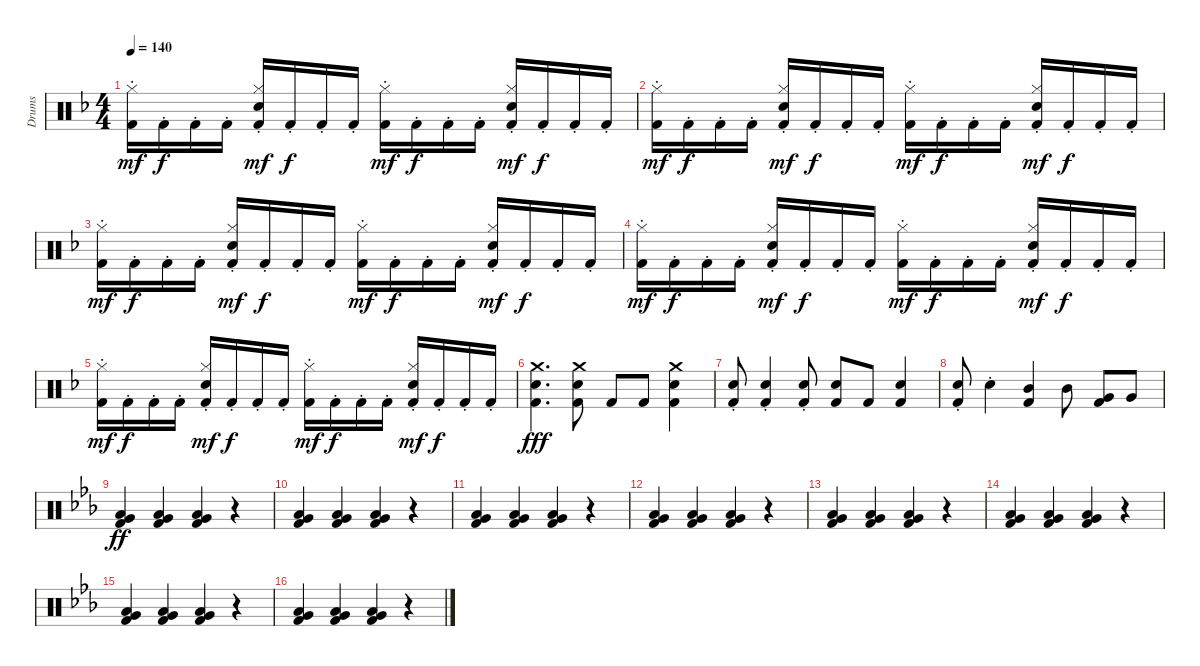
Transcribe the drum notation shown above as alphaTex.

\track ("Drums" "Drums") {instrument percussion}
\staff {score}
\articulation defaults
\ts (4 4)
\tempo 140
\clef neutral
\ks dminor
("Kick (hit) 2"{st} "Hi-Hat (closed)").16{dy mf} "Kick (hit) 2"{st}.16{dy f} "Kick (hit) 2"{st}.16 "Kick (hit) 2"{st}.16 ("Kick (hit) 2"{st} "Hi-Hat (closed)" "Electric Snare (hit)").16{dy mf} "Kick (hit) 2"{st}.16{dy f} "Kick (hit) 2"{st}.16 "Kick (hit) 2"{st}.16 ("Kick (hit) 2"{st} "Hi-Hat (closed)").16{dy mf} "Kick (hit) 2"{st}.16{dy f} "Kick (hit) 2"{st}.16 "Kick (hit) 2"{st}.16 ("Kick (hit) 2"{st} "Hi-Hat (closed)" "Electric Snare (hit)").16{dy mf} "Kick (hit) 2"{st}.16{dy f} "Kick (hit) 2"{st}.16 "Kick (hit) 2"{st}.16 |
("Kick (hit) 2"{st} "Hi-Hat (closed)").16{dy mf} "Kick (hit) 2"{st}.16{dy f} "Kick (hit) 2"{st}.16 "Kick (hit) 2"{st}.16 ("Kick (hit) 2"{st} "Hi-Hat (closed)" "Electric Snare (hit)").16{dy mf} "Kick (hit) 2"{st}.16{dy f} "Kick (hit) 2"{st}.16 "Kick (hit) 2"{st}.16 ("Kick (hit) 2"{st} "Hi-Hat (closed)").16{dy mf} "Kick (hit) 2"{st}.16{dy f} "Kick (hit) 2"{st}.16 "Kick (hit) 2"{st}.16 ("Kick (hit) 2"{st} "Hi-Hat (closed)" "Electric Snare (hit)").16{dy mf} "Kick (hit) 2"{st}.16{dy f} "Kick (hit) 2"{st}.16 "Kick (hit) 2"{st}.16 |
("Kick (hit) 2"{st} "Hi-Hat (closed)").16{dy mf} "Kick (hit) 2"{st}.16{dy f} "Kick (hit) 2"{st}.16 "Kick (hit) 2"{st}.16 ("Kick (hit) 2"{st} "Hi-Hat (closed)" "Electric Snare (hit)").16{dy mf} "Kick (hit) 2"{st}.16{dy f} "Kick (hit) 2"{st}.16 "Kick (hit) 2"{st}.16 ("Kick (hit) 2"{st} "Hi-Hat (closed)").16{dy mf} "Kick (hit) 2"{st}.16{dy f} "Kick (hit) 2"{st}.16 "Kick (hit) 2"{st}.16 ("Kick (hit) 2"{st} "Hi-Hat (closed)" "Electric Snare (hit)").16{dy mf} "Kick (hit) 2"{st}.16{dy f} "Kick (hit) 2"{st}.16 "Kick (hit) 2"{st}.16 |
("Kick (hit) 2"{st} "Hi-Hat (closed)").16{dy mf} "Kick (hit) 2"{st}.16{dy f} "Kick (hit) 2"{st}.16 "Kick (hit) 2"{st}.16 ("Kick (hit) 2"{st} "Hi-Hat (closed)" "Electric Snare (hit)").16{dy mf} "Kick (hit) 2"{st}.16{dy f} "Kick (hit) 2"{st}.16 "Kick (hit) 2"{st}.16 ("Kick (hit) 2"{st} "Hi-Hat (closed)").16{dy mf} "Kick (hit) 2"{st}.16{dy f} "Kick (hit) 2"{st}.16 "Kick (hit) 2"{st}.16 ("Kick (hit) 2"{st} "Hi-Hat (closed)" "Electric Snare (hit)").16{dy mf} "Kick (hit) 2"{st}.16{dy f} "Kick (hit) 2"{st}.16 "Kick (hit) 2"{st}.16 |
("Kick (hit) 2"{st} "Hi-Hat (closed)").16{dy mf} "Kick (hit) 2"{st}.16{dy f} "Kick (hit) 2"{st}.16 "Kick (hit) 2"{st}.16 ("Kick (hit) 2"{st} "Hi-Hat (closed)" "Electric Snare (hit)").16{dy mf} "Kick (hit) 2"{st}.16{dy f} "Kick (hit) 2"{st}.16 "Kick (hit) 2"{st}.16 ("Kick (hit) 2"{st} "Hi-Hat (closed)").16{dy mf} "Kick (hit) 2"{st}.16{dy f} "Kick (hit) 2"{st}.16 "Kick (hit) 2"{st}.16 ("Kick (hit) 2"{st} "Hi-Hat (closed)" "Electric Snare (hit)").16{dy mf} "Kick (hit) 2"{st}.16{dy f} "Kick (hit) 2"{st}.16 "Kick (hit) 2"{st}.16 |
("Electric Snare (hit)" "Kick (hit) 2" "Crash medium (hit)").4{d dy fff} ("Electric Snare (hit)" "Kick (hit) 2" "Crash medium (hit)").8 "Kick (hit) 2".8 "Kick (hit) 2".8 ("Electric Snare (hit)" "Kick (hit) 2" "Crash medium (hit)").4 |
("Electric Snare (hit)"{st} "Kick (hit) 2").8 ("Electric Snare (hit)"{st} "Kick (hit) 2").4 ("Electric Snare (hit)"{st} "Kick (hit) 2").8 ("Electric Snare (hit)" "Kick (hit) 2").8 "Kick (hit) 2".8 ("Electric Snare (hit)" "Kick (hit) 2").4 |
("Electric Snare (hit)"{st} "Kick (hit) 2").8 "Electric Snare (hit)"{st}.4 ("Mid Tom (hit)" "Kick (hit) 2").4 "Mid Tom (hit)".8 ("Very Low Tom (hit)" "Kick (hit) 2").8 "Very Low Tom (hit)".8 |
\ks cminor
("Kick (hit) 2" "Very Low Tom (hit)" "Low Tom (hit)").4{dy ff} ("Kick (hit) 2" "Very Low Tom (hit)" "Low Tom (hit)").4 ("Kick (hit) 2" "Very Low Tom (hit)" "Low Tom (hit)").4 r.4 |
("Kick (hit) 2" "Very Low Tom (hit)" "Low Tom (hit)").4 ("Kick (hit) 2" "Very Low Tom (hit)" "Low Tom (hit)").4 ("Kick (hit) 2" "Very Low Tom (hit)" "Low Tom (hit)").4 r.4 |
("Kick (hit) 2" "Very Low Tom (hit)" "Low Tom (hit)").4 ("Kick (hit) 2" "Very Low Tom (hit)" "Low Tom (hit)").4 ("Kick (hit) 2" "Very Low Tom (hit)" "Low Tom (hit)").4 r.4 |
("Kick (hit) 2" "Very Low Tom (hit)" "Low Tom (hit)").4 ("Kick (hit) 2" "Very Low Tom (hit)" "Low Tom (hit)").4 ("Kick (hit) 2" "Very Low Tom (hit)" "Low Tom (hit)").4 r.4 |
("Kick (hit) 2" "Very Low Tom (hit)" "Low Tom (hit)").4 ("Kick (hit) 2" "Very Low Tom (hit)" "Low Tom (hit)").4 ("Kick (hit) 2" "Very Low Tom (hit)" "Low Tom (hit)").4 r.4 |
("Kick (hit) 2" "Very Low Tom (hit)" "Low Tom (hit)").4 ("Kick (hit) 2" "Very Low Tom (hit)" "Low Tom (hit)").4 ("Kick (hit) 2" "Very Low Tom (hit)" "Low Tom (hit)").4 r.4 |
("Kick (hit) 2" "Very Low Tom (hit)" "Low Tom (hit)").4 ("Kick (hit) 2" "Very Low Tom (hit)" "Low Tom (hit)").4 ("Kick (hit) 2" "Very Low Tom (hit)" "Low Tom (hit)").4 r.4 |
("Kick (hit) 2" "Very Low Tom (hit)" "Low Tom (hit)").4 ("Kick (hit) 2" "Very Low Tom (hit)" "Low Tom (hit)").4 ("Kick (hit) 2" "Very Low Tom (hit)" "Low Tom (hit)").4 r.4
